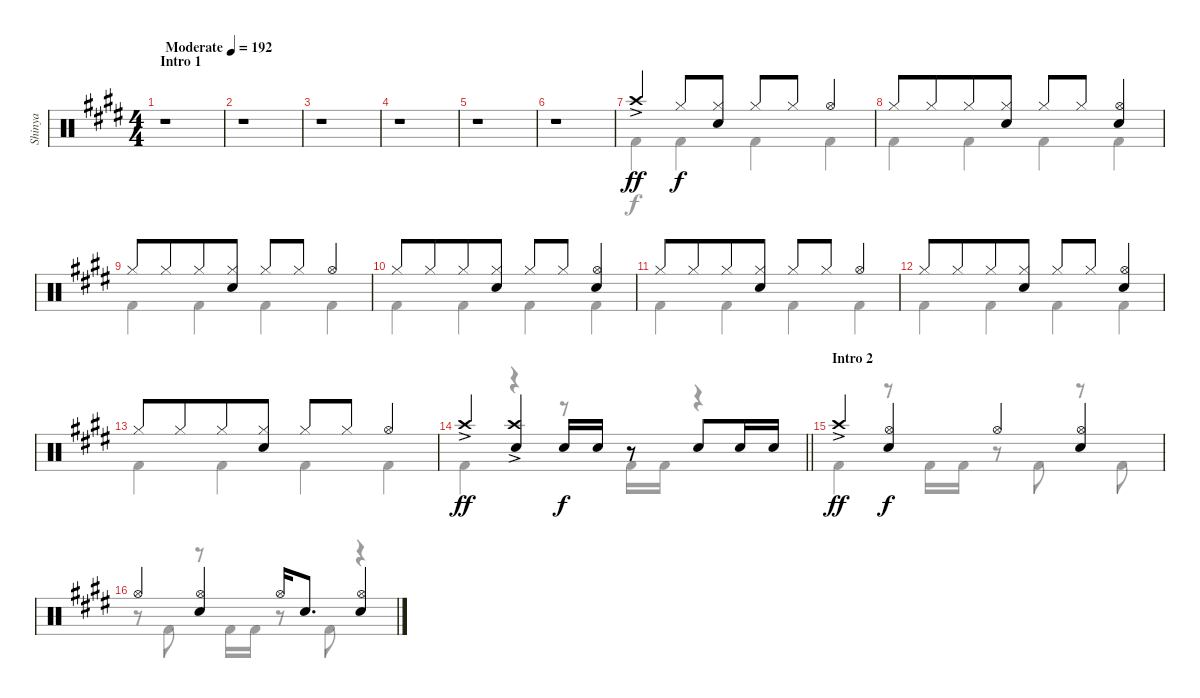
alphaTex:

\track ("Shinya" "Shinya") {instrument percussion}
\staff {score}
\articulation defaults
\voice
\ts (4 4)
\section ("" "Intro 1")
\tempo (192 "Moderate")
\clef neutral
\ks c#minor
r.1{dy ff} |
r.1 |
r.1 |
r.1 |
r.1 |
r.1 |
"Crash high (hit)"{ac}.4 "Hi-Hat (closed)".8{dy f} ("Hi-Hat (closed)" "Snare (hit) 2").8 "Hi-Hat (closed)".8 "Hi-Hat (closed)".8 "Hi-Hat (open)".4 |
"Hi-Hat (closed)".8 "Hi-Hat (closed)".8{beam merge} "Hi-Hat (closed)".8 ("Hi-Hat (closed)" "Snare (hit) 2").8 "Hi-Hat (closed)".8 "Hi-Hat (closed)".8 ("Hi-Hat (open)" "Snare (hit) 2").4 |
"Hi-Hat (closed)".8 "Hi-Hat (closed)".8{beam merge} "Hi-Hat (closed)".8 ("Hi-Hat (closed)" "Snare (hit) 2").8 "Hi-Hat (closed)".8 "Hi-Hat (closed)".8 "Hi-Hat (open)".4 |
"Hi-Hat (closed)".8 "Hi-Hat (closed)".8{beam merge} "Hi-Hat (closed)".8 ("Hi-Hat (closed)" "Snare (hit) 2").8 "Hi-Hat (closed)".8 "Hi-Hat (closed)".8 ("Hi-Hat (open)" "Snare (hit) 2").4 |
"Hi-Hat (closed)".8 "Hi-Hat (closed)".8{beam merge} "Hi-Hat (closed)".8 ("Hi-Hat (closed)" "Snare (hit) 2").8 "Hi-Hat (closed)".8 "Hi-Hat (closed)".8 "Hi-Hat (open)".4 |
"Hi-Hat (closed)".8 "Hi-Hat (closed)".8{beam merge} "Hi-Hat (closed)".8 ("Hi-Hat (closed)" "Snare (hit) 2").8 "Hi-Hat (closed)".8 "Hi-Hat (closed)".8 ("Hi-Hat (open)" "Snare (hit) 2").4 |
"Hi-Hat (closed)".8 "Hi-Hat (closed)".8{beam merge} "Hi-Hat (closed)".8 ("Hi-Hat (closed)" "Snare (hit) 2").8 "Hi-Hat (closed)".8 "Hi-Hat (closed)".8 "Hi-Hat (open)".4 |
\barLineRight lightlight "Crash high (hit)"{ac}.4{dy ff}
("Crash high (hit)"{ac} "Snare (hit) 2").4 "Snare (hit) 2".16{dy f} "Snare (hit) 2".16 r.8 "Snare (hit) 2".8 "Snare (hit) 2".16 "Snare (hit) 2".16 |
\section ("" "Intro 2")
"Crash high (hit)"{ac}.4{dy ff} ("Hi-Hat (open)" "Snare (hit) 2").4{dy f} "Hi-Hat (open)".4 ("Hi-Hat (open)" "Snare (hit) 2").4 |
"Hi-Hat (open)".4 ("Hi-Hat (open)" "Snare (hit) 2").4 "Hi-Hat (open)".16 "Snare (hit) 2".8{d} ("Hi-Hat (open)" "Snare (hit) 2").4
\voice
\clef neutral
\ottava regular
\simile none
\ks c#minor
r.1{dy f} |
r.1 |
r.1 |
r.1 |
r.1 |
r.1 |
"Kick (hit) 2".4 "Kick (hit) 2".4 "Kick (hit) 2".4 "Kick (hit) 2".4 |
"Kick (hit) 2".4 "Kick (hit) 2".4 "Kick (hit) 2".4 "Kick (hit) 2".4 |
"Kick (hit) 2".4 "Kick (hit) 2".4 "Kick (hit) 2".4 "Kick (hit) 2".4 |
"Kick (hit) 2".4 "Kick (hit) 2".4 "Kick (hit) 2".4 "Kick (hit) 2".4 |
"Kick (hit) 2".4 "Kick (hit) 2".4 "Kick (hit) 2".4 "Kick (hit) 2".4 |
"Kick (hit) 2".4 "Kick (hit) 2".4 "Kick (hit) 2".4 "Kick (hit) 2".4 |
"Kick (hit) 2".4 "Kick (hit) 2".4 "Kick (hit) 2".4 "Kick (hit) 2".4 |
\barLineRight lightlight "Kick (hit) 2".4
r.4 r.8 "Kick (hit) 2".16 "Kick (hit) 2".16 r.4 |
"Kick (hit) 2".4 r.8 "Kick (hit) 2".16 "Kick (hit) 2".16 r.8 "Kick (hit) 2".8 r.8 "Kick (hit) 2".8 |
r.8 "Kick (hit) 2".8 r.8 "Kick (hit) 2".16 "Kick (hit) 2".16 r.8 "Kick (hit) 2".8 r.4
